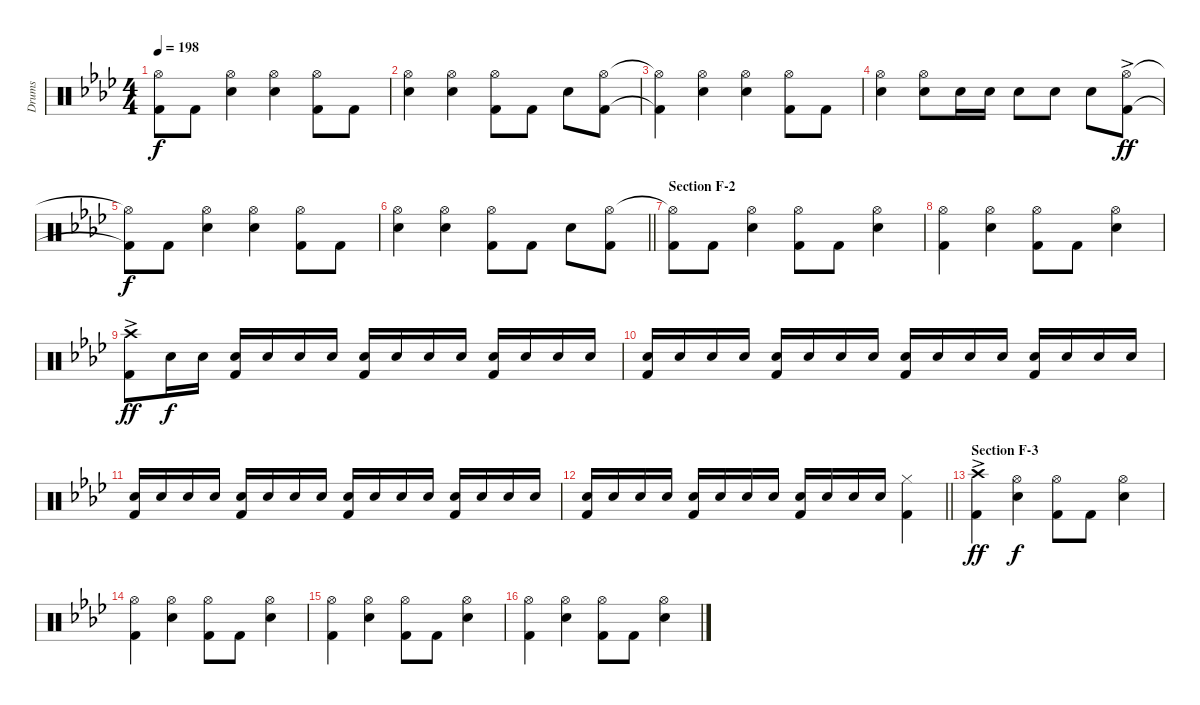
\track ("Drums" "Drums") {instrument percussion}
\staff {score}
\articulation defaults
\ts (4 4)
\tempo 198
\clef neutral
\ks ab
("Hi-Hat (open)"{t} "Kick (hit) 2"{t}).8{dy f} "Kick (hit) 2".8 ("Hi-Hat (open)" "Snare (hit) 2").4 ("Hi-Hat (open)" "Snare (hit) 2").4 ("Hi-Hat (open)" "Kick (hit) 2").8 "Kick (hit) 2".8 |
("Hi-Hat (open)" "Snare (hit) 2").4 ("Hi-Hat (open)" "Snare (hit) 2").4 ("Hi-Hat (open)" "Kick (hit) 2").8 "Kick (hit) 2".8 "Snare (hit) 2".8 ("Hi-Hat (open)" "Kick (hit) 2").8 |
("Hi-Hat (open)"{t} "Kick (hit) 2"{t}).4 ("Hi-Hat (open)" "Snare (hit) 2").4 ("Hi-Hat (open)" "Snare (hit) 2").4 ("Hi-Hat (open)" "Kick (hit) 2").8 "Kick (hit) 2".8 |
("Hi-Hat (open)" "Snare (hit) 2").4 ("Hi-Hat (open)" "Snare (hit) 2").8 "Snare (hit) 2".16 "Snare (hit) 2".16 "Snare (hit) 2".8 "Snare (hit) 2".8 "Snare (hit) 2".8 ("Hi-Hat (open)"{ac} "Kick (hit) 2").8{dy ff} |
("Hi-Hat (open)"{t} "Kick (hit) 2"{t}).8{dy f} "Kick (hit) 2".8 ("Hi-Hat (open)" "Snare (hit) 2").4 ("Hi-Hat (open)" "Snare (hit) 2").4 ("Hi-Hat (open)" "Kick (hit) 2").8 "Kick (hit) 2".8 |
\barLineRight lightlight
("Hi-Hat (open)" "Snare (hit) 2").4 ("Hi-Hat (open)" "Snare (hit) 2").4 ("Hi-Hat (open)" "Kick (hit) 2").8 "Kick (hit) 2".8 "Snare (hit) 2".8 ("Hi-Hat (open)" "Kick (hit) 2").8 |
\section ("" "Section F-2")
("Hi-Hat (open)"{t} "Kick (hit) 2").8 "Kick (hit) 2".8 ("Hi-Hat (open)" "Snare (hit) 2").4 ("Hi-Hat (open)" "Kick (hit) 2").8 "Kick (hit) 2".8 ("Hi-Hat (open)" "Snare (hit) 2").4 |
("Hi-Hat (open)" "Kick (hit) 2").4 ("Hi-Hat (open)" "Snare (hit) 2").4 ("Hi-Hat (open)" "Kick (hit) 2").8 "Kick (hit) 2".8 ("Hi-Hat (open)" "Snare (hit) 2").4 |
("Crash high (hit)" "Kick (hit) 2"{ac}).8{dy ff} "Snare (hit) 2".16{dy f} "Snare (hit) 2".16 ("Snare (hit) 2" "Kick (hit) 2").16 "Snare (hit) 2".16 "Snare (hit) 2".16 "Snare (hit) 2".16 ("Snare (hit) 2" "Kick (hit) 2").16 "Snare (hit) 2".16 "Snare (hit) 2".16 "Snare (hit) 2".16 ("Snare (hit) 2" "Kick (hit) 2").16 "Snare (hit) 2".16 "Snare (hit) 2".16 "Snare (hit) 2".16 |
("Snare (hit) 2" "Kick (hit) 2").16 "Snare (hit) 2".16 "Snare (hit) 2".16 "Snare (hit) 2".16 ("Snare (hit) 2" "Kick (hit) 2").16 "Snare (hit) 2".16 "Snare (hit) 2".16 "Snare (hit) 2".16 ("Snare (hit) 2" "Kick (hit) 2").16 "Snare (hit) 2".16 "Snare (hit) 2".16 "Snare (hit) 2".16 ("Snare (hit) 2" "Kick (hit) 2").16 "Snare (hit) 2".16 "Snare (hit) 2".16 "Snare (hit) 2".16 |
("Snare (hit) 2" "Kick (hit) 2").16 "Snare (hit) 2".16 "Snare (hit) 2".16 "Snare (hit) 2".16 ("Snare (hit) 2" "Kick (hit) 2").16 "Snare (hit) 2".16 "Snare (hit) 2".16 "Snare (hit) 2".16 ("Snare (hit) 2" "Kick (hit) 2").16 "Snare (hit) 2".16 "Snare (hit) 2".16 "Snare (hit) 2".16 ("Snare (hit) 2" "Kick (hit) 2").16 "Snare (hit) 2".16 "Snare (hit) 2".16 "Snare (hit) 2".16 |
\barLineRight lightlight
("Snare (hit) 2" "Kick (hit) 2").16 "Snare (hit) 2".16 "Snare (hit) 2".16 "Snare (hit) 2".16 ("Snare (hit) 2" "Kick (hit) 2").16 "Snare (hit) 2".16 "Snare (hit) 2".16 "Snare (hit) 2".16 ("Snare (hit) 2" "Kick (hit) 2").16 "Snare (hit) 2".16 "Snare (hit) 2".16 "Snare (hit) 2".16 ("Hi-Hat (closed)" "Kick (hit) 2").4 |
\section ("" "Section F-3")
("Crash high (hit)"{ac} "Kick (hit) 2").4{dy ff} ("Hi-Hat (open)" "Snare (hit) 2").4{dy f} ("Hi-Hat (open)" "Kick (hit) 2").8 "Kick (hit) 2".8 ("Hi-Hat (open)" "Snare (hit) 2").4 |
("Hi-Hat (open)" "Kick (hit) 2").4 ("Hi-Hat (open)" "Snare (hit) 2").4 ("Hi-Hat (open)" "Kick (hit) 2").8 "Kick (hit) 2".8 ("Hi-Hat (open)" "Snare (hit) 2").4 |
("Hi-Hat (open)" "Kick (hit) 2").4 ("Hi-Hat (open)" "Snare (hit) 2").4 ("Hi-Hat (open)" "Kick (hit) 2").8 "Kick (hit) 2".8 ("Hi-Hat (open)" "Snare (hit) 2").4 |
("Hi-Hat (open)" "Kick (hit) 2").4 ("Hi-Hat (open)" "Snare (hit) 2").4 ("Hi-Hat (open)" "Kick (hit) 2").8 "Kick (hit) 2".8 ("Hi-Hat (open)" "Snare (hit) 2").4
